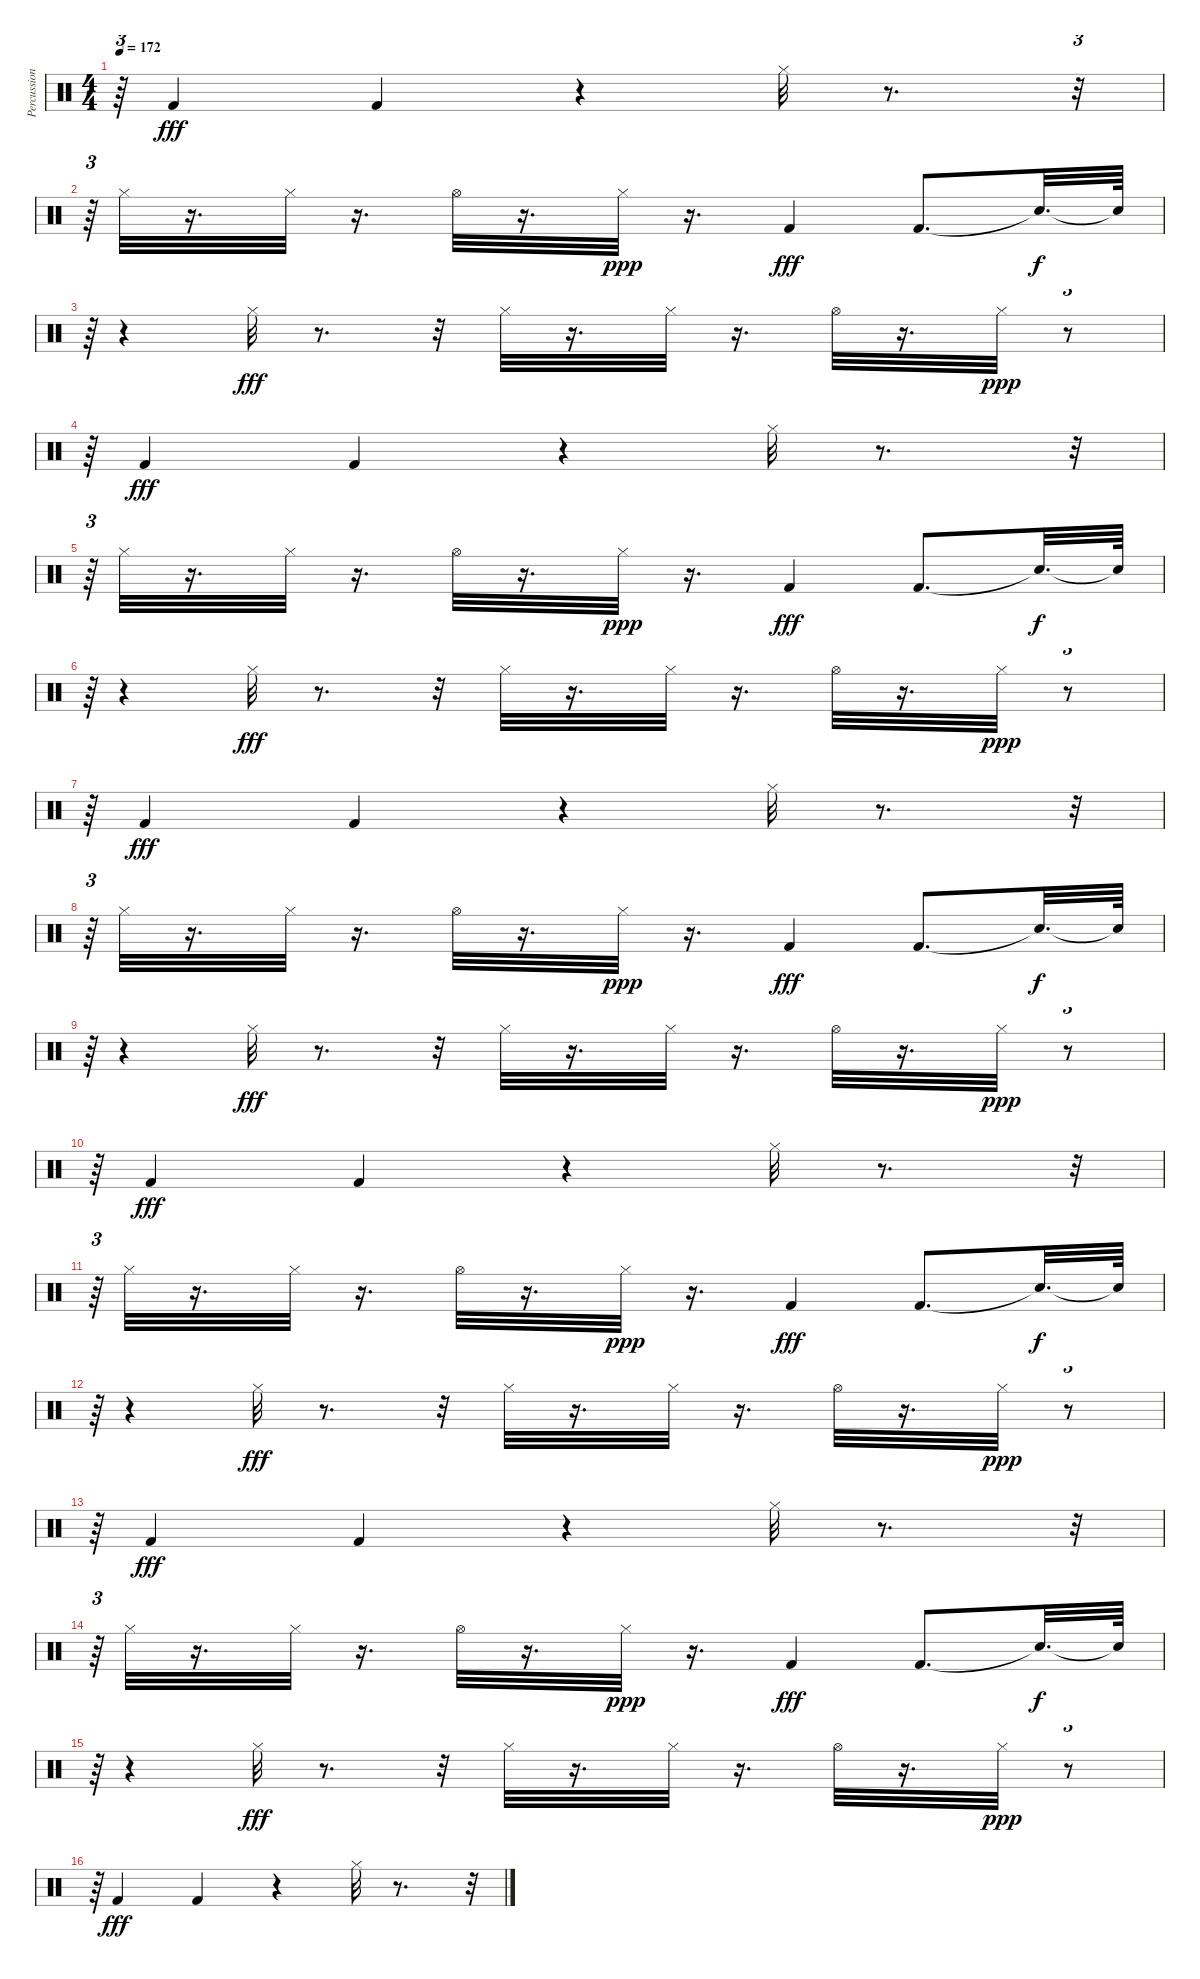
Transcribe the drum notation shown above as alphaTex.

\track ("Percussioni" "Percussion") {instrument percussion}
\staff {score}
\articulation defaults
\ts (4 4)
\tempo 172
\clef neutral
\ks c
r.64{tu (3 2) dy ppp} "Kick (hit) 2".4{dy fff} "Kick (hit) 2".4 r.4 "Hi-Hat (closed)".32 r.8{d} r.32{tu (3 2)} |
r.64{tu (3 2)} "Hi-Hat (closed)".32 r.16{d} "Hi-Hat (closed)".32 r.16{d} "Hi-Hat (open)".32 r.16{d} "Hi-Hat (closed)".32{dy ppp} r.16{d} "Kick (hit) 2".4{dy fff} "Kick (hit) 2".8{d} "Snare (hit)"{t}.32{d dy f} "Snare (hit)"{t}.64 |
r.64{tu (3 2)} r.4 "Hi-Hat (closed)".32{dy fff} r.8{d} r.32 "Hi-Hat (closed)".32 r.16{d} "Hi-Hat (closed)".32 r.16{d} "Hi-Hat (open)".32 r.16{d} "Hi-Hat (closed)".32{dy ppp} r.8{tu (3 2)} |
r.64{tu (3 2)} "Kick (hit) 2".4{dy fff} "Kick (hit) 2".4 r.4 "Hi-Hat (closed)".32 r.8{d} r.32{tu (3 2)} |
r.64{tu (3 2)} "Hi-Hat (closed)".32 r.16{d} "Hi-Hat (closed)".32 r.16{d} "Hi-Hat (open)".32 r.16{d} "Hi-Hat (closed)".32{dy ppp} r.16{d} "Kick (hit) 2".4{dy fff} "Kick (hit) 2".8{d} "Snare (hit)"{t}.32{d dy f} "Snare (hit)"{t}.64 |
r.64{tu (3 2)} r.4 "Hi-Hat (closed)".32{dy fff} r.8{d} r.32 "Hi-Hat (closed)".32 r.16{d} "Hi-Hat (closed)".32 r.16{d} "Hi-Hat (open)".32 r.16{d} "Hi-Hat (closed)".32{dy ppp} r.8{tu (3 2)} |
r.64{tu (3 2)} "Kick (hit) 2".4{dy fff} "Kick (hit) 2".4 r.4 "Hi-Hat (closed)".32 r.8{d} r.32{tu (3 2)} |
r.64{tu (3 2)} "Hi-Hat (closed)".32 r.16{d} "Hi-Hat (closed)".32 r.16{d} "Hi-Hat (open)".32 r.16{d} "Hi-Hat (closed)".32{dy ppp} r.16{d} "Kick (hit) 2".4{dy fff} "Kick (hit) 2".8{d} "Snare (hit)"{t}.32{d dy f} "Snare (hit)"{t}.64 |
r.64{tu (3 2)} r.4 "Hi-Hat (closed)".32{dy fff} r.8{d} r.32 "Hi-Hat (closed)".32 r.16{d} "Hi-Hat (closed)".32 r.16{d} "Hi-Hat (open)".32 r.16{d} "Hi-Hat (closed)".32{dy ppp} r.8{tu (3 2)} |
r.64{tu (3 2)} "Kick (hit) 2".4{dy fff} "Kick (hit) 2".4 r.4 "Hi-Hat (closed)".32 r.8{d} r.32{tu (3 2)} |
r.64{tu (3 2)} "Hi-Hat (closed)".32 r.16{d} "Hi-Hat (closed)".32 r.16{d} "Hi-Hat (open)".32 r.16{d} "Hi-Hat (closed)".32{dy ppp} r.16{d} "Kick (hit) 2".4{dy fff} "Kick (hit) 2".8{d} "Snare (hit)"{t}.32{d dy f} "Snare (hit)"{t}.64 |
r.64{tu (3 2)} r.4 "Hi-Hat (closed)".32{dy fff} r.8{d} r.32 "Hi-Hat (closed)".32 r.16{d} "Hi-Hat (closed)".32 r.16{d} "Hi-Hat (open)".32 r.16{d} "Hi-Hat (closed)".32{dy ppp} r.8{tu (3 2)} |
r.64{tu (3 2)} "Kick (hit) 2".4{dy fff} "Kick (hit) 2".4 r.4 "Hi-Hat (closed)".32 r.8{d} r.32{tu (3 2)} |
r.64{tu (3 2)} "Hi-Hat (closed)".32 r.16{d} "Hi-Hat (closed)".32 r.16{d} "Hi-Hat (open)".32 r.16{d} "Hi-Hat (closed)".32{dy ppp} r.16{d} "Kick (hit) 2".4{dy fff} "Kick (hit) 2".8{d} "Snare (hit)"{t}.32{d dy f} "Snare (hit)"{t}.64 |
r.64{tu (3 2)} r.4 "Hi-Hat (closed)".32{dy fff} r.8{d} r.32 "Hi-Hat (closed)".32 r.16{d} "Hi-Hat (closed)".32 r.16{d} "Hi-Hat (open)".32 r.16{d} "Hi-Hat (closed)".32{dy ppp} r.8{tu (3 2)} |
r.64{tu (3 2)} "Kick (hit) 2".4{dy fff} "Kick (hit) 2".4 r.4 "Hi-Hat (closed)".32 r.8{d} r.32{tu (3 2)}
